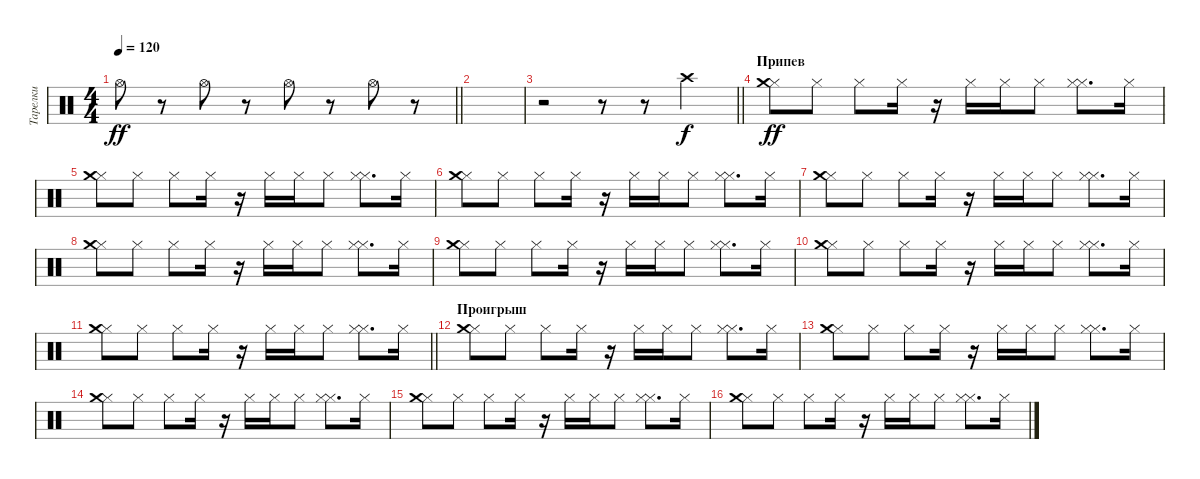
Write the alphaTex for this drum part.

\track ("Тарелки" "Тарелки") {instrument percussion}
\staff {score}
\articulation defaults
\ts (4 4)
\tempo 120
\clef neutral
\barLineRight lightlight
\ks c "Hi-Hat (open)".8{dy ff}
r.8 "Hi-Hat (open)".8 r.8 "Hi-Hat (open)".8 r.8 "Hi-Hat (open)".8 r.8 |
|
\barLineRight lightlight
r.2 r.8 r.8 "Crash high (hit)".4{dy f} |
\section ("" "Припев")
("Hi-Hat (closed)" "Crash medium (hit)").8{dy ff} "Hi-Hat (closed)".8 "Hi-Hat (closed)".8 "Hi-Hat (closed)".16 r.16 "Hi-Hat (closed)".16 "Hi-Hat (closed)".16 "Hi-Hat (closed)".8 ("Hi-Hat (closed)" "Hi-Hat (closed)").8{d} "Hi-Hat (closed)".16 |
("Hi-Hat (closed)" "Crash medium (hit)").8 "Hi-Hat (closed)".8 "Hi-Hat (closed)".8 "Hi-Hat (closed)".16 r.16 "Hi-Hat (closed)".16 "Hi-Hat (closed)".16 "Hi-Hat (closed)".8 ("Hi-Hat (closed)" "Hi-Hat (closed)").8{d} "Hi-Hat (closed)".16 |
("Hi-Hat (closed)" "Crash medium (hit)").8 "Hi-Hat (closed)".8 "Hi-Hat (closed)".8 "Hi-Hat (closed)".16 r.16 "Hi-Hat (closed)".16 "Hi-Hat (closed)".16 "Hi-Hat (closed)".8 ("Hi-Hat (closed)" "Hi-Hat (closed)").8{d} "Hi-Hat (closed)".16 |
("Hi-Hat (closed)" "Crash medium (hit)").8 "Hi-Hat (closed)".8 "Hi-Hat (closed)".8 "Hi-Hat (closed)".16 r.16 "Hi-Hat (closed)".16 "Hi-Hat (closed)".16 "Hi-Hat (closed)".8 ("Hi-Hat (closed)" "Hi-Hat (closed)").8{d} "Hi-Hat (closed)".16 |
("Hi-Hat (closed)" "Crash medium (hit)").8 "Hi-Hat (closed)".8 "Hi-Hat (closed)".8 "Hi-Hat (closed)".16 r.16 "Hi-Hat (closed)".16 "Hi-Hat (closed)".16 "Hi-Hat (closed)".8 ("Hi-Hat (closed)" "Hi-Hat (closed)").8{d} "Hi-Hat (closed)".16 |
("Hi-Hat (closed)" "Crash medium (hit)").8 "Hi-Hat (closed)".8 "Hi-Hat (closed)".8 "Hi-Hat (closed)".16 r.16 "Hi-Hat (closed)".16 "Hi-Hat (closed)".16 "Hi-Hat (closed)".8 ("Hi-Hat (closed)" "Hi-Hat (closed)").8{d} "Hi-Hat (closed)".16 |
("Hi-Hat (closed)" "Crash medium (hit)").8 "Hi-Hat (closed)".8 "Hi-Hat (closed)".8 "Hi-Hat (closed)".16 r.16 "Hi-Hat (closed)".16 "Hi-Hat (closed)".16 "Hi-Hat (closed)".8 ("Hi-Hat (closed)" "Hi-Hat (closed)").8{d} "Hi-Hat (closed)".16 |
\barLineRight lightlight
("Hi-Hat (closed)" "Crash medium (hit)").8 "Hi-Hat (closed)".8 "Hi-Hat (closed)".8 "Hi-Hat (closed)".16 r.16 "Hi-Hat (closed)".16 "Hi-Hat (closed)".16 "Hi-Hat (closed)".8 ("Hi-Hat (closed)" "Hi-Hat (closed)").8{d} "Hi-Hat (closed)".16 |
\section ("" "Проигрыш")
("Hi-Hat (closed)" "Crash medium (hit)").8 "Hi-Hat (closed)".8 "Hi-Hat (closed)".8 "Hi-Hat (closed)".16 r.16 "Hi-Hat (closed)".16 "Hi-Hat (closed)".16 "Hi-Hat (closed)".8 ("Hi-Hat (closed)" "Hi-Hat (closed)").8{d} "Hi-Hat (closed)".16 |
("Hi-Hat (closed)" "Crash medium (hit)").8 "Hi-Hat (closed)".8 "Hi-Hat (closed)".8 "Hi-Hat (closed)".16 r.16 "Hi-Hat (closed)".16 "Hi-Hat (closed)".16 "Hi-Hat (closed)".8 ("Hi-Hat (closed)" "Hi-Hat (closed)").8{d} "Hi-Hat (closed)".16 |
("Hi-Hat (closed)" "Crash medium (hit)").8 "Hi-Hat (closed)".8 "Hi-Hat (closed)".8 "Hi-Hat (closed)".16 r.16 "Hi-Hat (closed)".16 "Hi-Hat (closed)".16 "Hi-Hat (closed)".8 ("Hi-Hat (closed)" "Hi-Hat (closed)").8{d} "Hi-Hat (closed)".16 |
("Hi-Hat (closed)" "Crash medium (hit)").8 "Hi-Hat (closed)".8 "Hi-Hat (closed)".8 "Hi-Hat (closed)".16 r.16 "Hi-Hat (closed)".16 "Hi-Hat (closed)".16 "Hi-Hat (closed)".8 ("Hi-Hat (closed)" "Hi-Hat (closed)").8{d} "Hi-Hat (closed)".16 |
("Hi-Hat (closed)" "Crash medium (hit)").8 "Hi-Hat (closed)".8 "Hi-Hat (closed)".8 "Hi-Hat (closed)".16 r.16 "Hi-Hat (closed)".16 "Hi-Hat (closed)".16 "Hi-Hat (closed)".8 ("Hi-Hat (closed)" "Hi-Hat (closed)").8{d} "Hi-Hat (closed)".16
